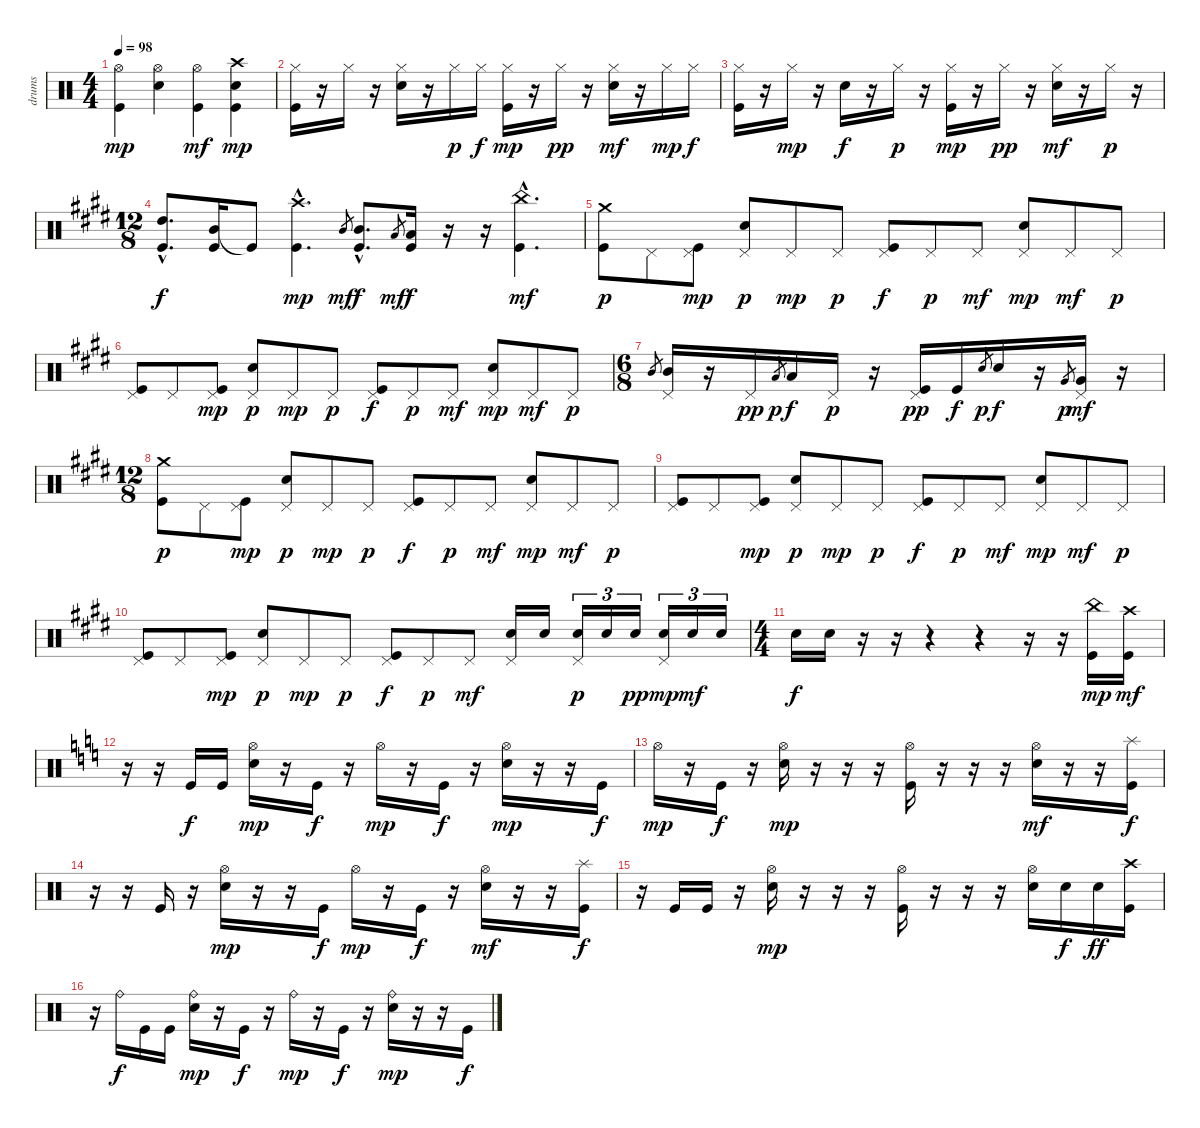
\track ("drums" "drums") {instrument percussion}
\staff {score}
\articulation defaults
\ts (4 4)
\tempo 98
\clef neutral
\ks c
("Hi-Hat (open)" "Kick (hit)").4{dy mp} ("Hi-Hat (open)" "Electric Snare (hit)").4 ("Hi-Hat (open)" "Kick (hit)").4{dy mf} ("Crash high (hit)" "Electric Snare (hit)" "Kick (hit)").4{dy mp} |
("Hi-Hat (closed)" "Kick (hit)").16 r.16 "Hi-Hat (closed)".16 r.16 ("Hi-Hat (closed)" "Electric Snare (hit)").16 r.16 "Hi-Hat (closed)".16{dy p} "Hi-Hat (closed)".16{dy f} ("Hi-Hat (closed)" "Kick (hit)").16{dy mp} r.16 "Hi-Hat (closed)".16{dy pp} r.16 ("Hi-Hat (closed)" "Electric Snare (hit)").16{dy mf} r.16 "Hi-Hat (closed)".16{dy mp} "Hi-Hat (closed)".16{dy f} |
("Hi-Hat (closed)" "Kick (hit)").16 r.16 "Hi-Hat (closed)".16{dy mp} r.16 "Electric Snare (hit)".16{dy f} r.16 "Hi-Hat (closed)".16{dy p} r.16 ("Hi-Hat (closed)" "Kick (hit)").16{dy mp} r.16 "Hi-Hat (closed)".16{dy pp} r.16 ("Hi-Hat (closed)" "Electric Snare (hit)").16{dy mf} r.16 "Hi-Hat (closed)".16{dy p} r.16 |
\ts (12 8)
\ks e
("High Tom (hit)"{hac} "Kick (hit)"{hac}).8{d dy f} ("Mid Tom (hit)" "Kick (hit)").16 "Kick (hit)"{t}.8 ("Crash high (hit)"{hac} "Kick (hit)"{hac}).4{d dy mp} "Mid Tom (hit)".8{gr dy mf} ("Mid Tom (hit)"{hac} "Kick (hit)"{hac}).8{d dy f} "Low Tom (hit)".8{gr dy mf} ("Low Tom (hit)" "Kick (hit)").16{dy f} r.16 r.16 ("China (hit)"{hac} "Kick (hit)"{hac}).4{d dy mf} |
("Crash medium (hit)" "Kick (hit)").8{dy p} "Pedal Hi-Hat (hit)".8 ("Pedal Hi-Hat (hit)" "Kick (hit)").8{dy mp} ("Pedal Hi-Hat (hit)" "Electric Snare (hit)").8{dy p} "Pedal Hi-Hat (hit)".8{dy mp} "Pedal Hi-Hat (hit)".8{dy p} ("Pedal Hi-Hat (hit)" "Kick (hit)").8{dy f} "Pedal Hi-Hat (hit)".8{dy p} "Pedal Hi-Hat (hit)".8{dy mf} ("Pedal Hi-Hat (hit)" "Electric Snare (hit)").8{dy mp} "Pedal Hi-Hat (hit)".8{dy mf} "Pedal Hi-Hat (hit)".8{dy p} |
("Pedal Hi-Hat (hit)" "Kick (hit)").8 "Pedal Hi-Hat (hit)".8 ("Pedal Hi-Hat (hit)" "Kick (hit)").8{dy mp} ("Pedal Hi-Hat (hit)" "Electric Snare (hit)").8{dy p} "Pedal Hi-Hat (hit)".8{dy mp} "Pedal Hi-Hat (hit)".8{dy p} ("Pedal Hi-Hat (hit)" "Kick (hit)").8{dy f} "Pedal Hi-Hat (hit)".8{dy p} "Pedal Hi-Hat (hit)".8{dy mf} ("Pedal Hi-Hat (hit)" "Electric Snare (hit)").8{dy mp} "Pedal Hi-Hat (hit)".8{dy mf} "Pedal Hi-Hat (hit)".8{dy p} |
\ts (6 8)
"Mid Tom (hit)".8{gr} ("Pedal Hi-Hat (hit)" "Mid Tom (hit)").16 r.16 "Pedal Hi-Hat (hit)".16{dy pp} "Low Tom (hit)".8{gr dy p} "Low Tom (hit)".16{dy f} "Pedal Hi-Hat (hit)".16{dy p} r.16 ("Pedal Hi-Hat (hit)" "Kick (hit)").16{dy pp} "Kick (hit)".16{dy f} "Electric Snare (hit)".8{gr dy p} "Electric Snare (hit)".16{dy f} r.16 "Very Low Tom (hit)".8{gr dy p} ("Pedal Hi-Hat (hit)" "Very Low Tom (hit)").16{dy mf} r.16 |
\ts (12 8)
("Crash medium (hit)" "Kick (hit)").8{dy p} "Pedal Hi-Hat (hit)".8 ("Pedal Hi-Hat (hit)" "Kick (hit)").8{dy mp} ("Pedal Hi-Hat (hit)" "Electric Snare (hit)").8{dy p} "Pedal Hi-Hat (hit)".8{dy mp} "Pedal Hi-Hat (hit)".8{dy p} ("Pedal Hi-Hat (hit)" "Kick (hit)").8{dy f} "Pedal Hi-Hat (hit)".8{dy p} "Pedal Hi-Hat (hit)".8{dy mf} ("Pedal Hi-Hat (hit)" "Electric Snare (hit)").8{dy mp} "Pedal Hi-Hat (hit)".8{dy mf} "Pedal Hi-Hat (hit)".8{dy p} |
("Pedal Hi-Hat (hit)" "Kick (hit)").8 "Pedal Hi-Hat (hit)".8 ("Pedal Hi-Hat (hit)" "Kick (hit)").8{dy mp} ("Pedal Hi-Hat (hit)" "Electric Snare (hit)").8{dy p} "Pedal Hi-Hat (hit)".8{dy mp} "Pedal Hi-Hat (hit)".8{dy p} ("Pedal Hi-Hat (hit)" "Kick (hit)").8{dy f} "Pedal Hi-Hat (hit)".8{dy p} "Pedal Hi-Hat (hit)".8{dy mf} ("Pedal Hi-Hat (hit)" "Electric Snare (hit)").8{dy mp} "Pedal Hi-Hat (hit)".8{dy mf} "Pedal Hi-Hat (hit)".8{dy p} |
("Pedal Hi-Hat (hit)" "Kick (hit)").8 "Pedal Hi-Hat (hit)".8 ("Pedal Hi-Hat (hit)" "Kick (hit)").8{dy mp} ("Pedal Hi-Hat (hit)" "Electric Snare (hit)").8{dy p} "Pedal Hi-Hat (hit)".8{dy mp} "Pedal Hi-Hat (hit)".8{dy p} ("Pedal Hi-Hat (hit)" "Kick (hit)").8{dy f} "Pedal Hi-Hat (hit)".8{dy p} "Pedal Hi-Hat (hit)".8{dy mf} ("Pedal Hi-Hat (hit)" "Electric Snare (hit)").16 "Electric Snare (hit)".16 ("Pedal Hi-Hat (hit)" "Electric Snare (hit)").16{tu (3 2) dy p} "Electric Snare (hit)".16{tu (3 2)} "Electric Snare (hit)".16{tu (3 2) dy pp} ("Pedal Hi-Hat (hit)" "Electric Snare (hit)").16{tu (3 2) dy mp} "Electric Snare (hit)".16{tu (3 2) dy mf} "Electric Snare (hit)".16{tu (3 2)} |
\ts (4 4)
"Electric Snare (hit)".16{dy f} "Electric Snare (hit)".16 r.16 r.16 r.4 r.4 r.16 r.16 ("China (hit)" "Kick (hit)").16{dy mp} ("Crash high (hit)" "Kick (hit)").16{dy mf} |
\ks c
r.16 r.16 "Kick (hit)".16{dy f} "Kick (hit)".16 ("Hi-Hat (open)" "Electric Snare (hit)").16{dy mp} r.16 "Kick (hit)".16{dy f} r.16 "Hi-Hat (open)".16{dy mp} r.16 "Kick (hit)".16{dy f} r.16 ("Hi-Hat (open)" "Electric Snare (hit)").16{dy mp} r.16 r.16 "Kick (hit)".16{dy f} |
"Hi-Hat (open)".16{dy mp} r.16 "Kick (hit)".16{dy f} r.16 ("Hi-Hat (open)" "Electric Snare (hit)").16{dy mp} r.16 r.16 r.16 ("Hi-Hat (open)" "Kick (hit)").16 r.16 r.16 r.16 ("Hi-Hat (open)" "Electric Snare (hit)").16{dy mf} r.16 r.16 ("Splash (hit)" "Kick (hit)").16{dy f} |
r.16 r.16 "Kick (hit)".16 r.16 ("Hi-Hat (open)" "Electric Snare (hit)").16{dy mp} r.16 r.16 "Kick (hit)".16{dy f} "Hi-Hat (open)".16{dy mp} r.16 "Kick (hit)".16{dy f} r.16 ("Hi-Hat (open)" "Electric Snare (hit)").16{dy mf} r.16 r.16 ("Splash (hit)" "Kick (hit)").16{dy f} |
r.16 "Kick (hit)".16 "Kick (hit)".16 r.16 ("Hi-Hat (open)" "Electric Snare (hit)").16{dy mp} r.16 r.16 r.16 ("Hi-Hat (open)" "Kick (hit)").16 r.16 r.16 r.16 ("Hi-Hat (open)" "Electric Snare (hit)").16 "Electric Snare (hit)".16{dy f} "Electric Snare (hit)".16{dy ff} ("Crash high (hit)" "Kick (hit)").16 |
r.16 "Ride (bell)".16{dy f} "Kick (hit)".16 "Kick (hit)".16 ("Ride (bell)" "Electric Snare (hit)").16{dy mp} r.16 "Kick (hit)".16{dy f} r.16 "Ride (bell)".16{dy mp} r.16 "Kick (hit)".16{dy f} r.16 ("Ride (bell)" "Electric Snare (hit)").16{dy mp} r.16 r.16 "Kick (hit)".16{dy f}
